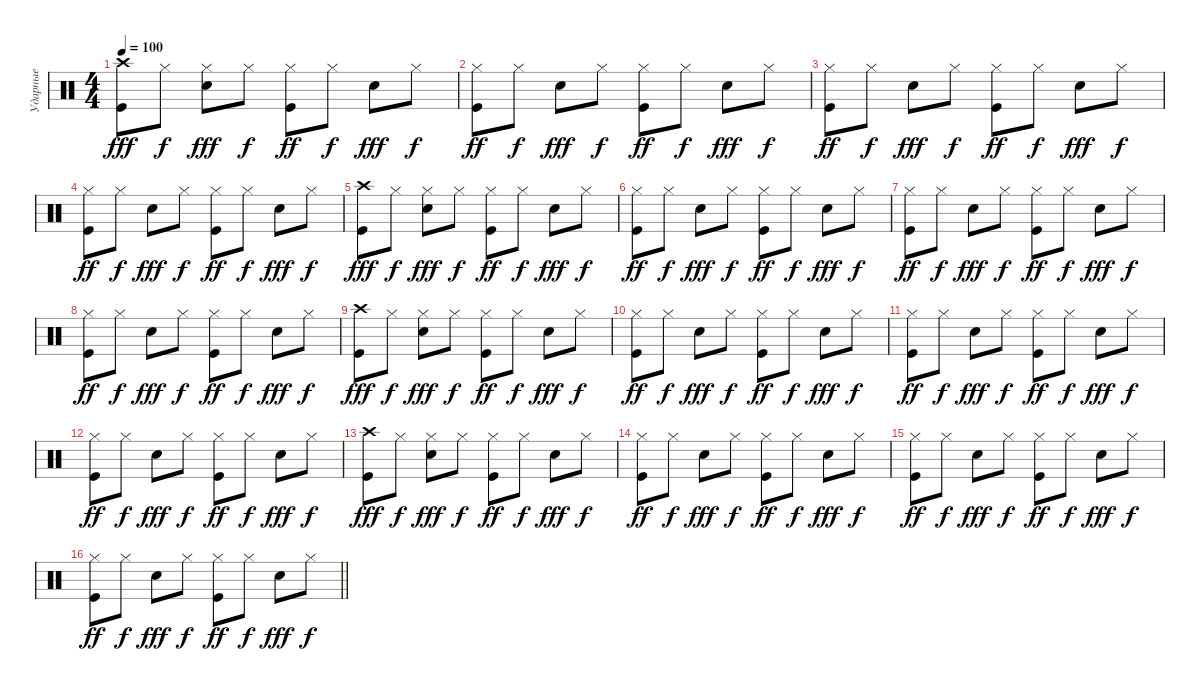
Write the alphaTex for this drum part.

\track ("Ударные" "Ударные") {instrument percussion}
\staff {score}
\articulation defaults
\ts (4 4)
\tempo 100
\clef neutral
\ks c
("Kick (hit)" "Crash high (hit)").8{dy fff} "Hi-Hat (closed)".8{dy f} ("Electric Snare (hit)" "Hi-Hat (closed)").8{dy fff} "Hi-Hat (closed)".8{dy f} ("Kick (hit)" "Hi-Hat (closed)").8{dy ff} "Hi-Hat (closed)".8{dy f} "Electric Snare (hit)".8{dy fff} "Hi-Hat (closed)".8{dy f} |
("Kick (hit)" "Hi-Hat (closed)").8{dy ff} "Hi-Hat (closed)".8{dy f} "Electric Snare (hit)".8{dy fff} "Hi-Hat (closed)".8{dy f} ("Kick (hit)" "Hi-Hat (closed)").8{dy ff} "Hi-Hat (closed)".8{dy f} "Electric Snare (hit)".8{dy fff} "Hi-Hat (closed)".8{dy f} |
("Kick (hit)" "Hi-Hat (closed)").8{dy ff} "Hi-Hat (closed)".8{dy f} "Electric Snare (hit)".8{dy fff} "Hi-Hat (closed)".8{dy f} ("Kick (hit)" "Hi-Hat (closed)").8{dy ff} "Hi-Hat (closed)".8{dy f} "Electric Snare (hit)".8{dy fff} "Hi-Hat (closed)".8{dy f} |
("Kick (hit)" "Hi-Hat (closed)").8{dy ff} "Hi-Hat (closed)".8{dy f} "Electric Snare (hit)".8{dy fff} "Hi-Hat (closed)".8{dy f} ("Kick (hit)" "Hi-Hat (closed)").8{dy ff} "Hi-Hat (closed)".8{dy f} "Electric Snare (hit)".8{dy fff} "Hi-Hat (closed)".8{dy f} |
("Kick (hit)" "Crash high (hit)").8{dy fff} "Hi-Hat (closed)".8{dy f} ("Electric Snare (hit)" "Hi-Hat (closed)").8{dy fff} "Hi-Hat (closed)".8{dy f} ("Kick (hit)" "Hi-Hat (closed)").8{dy ff} "Hi-Hat (closed)".8{dy f} "Electric Snare (hit)".8{dy fff} "Hi-Hat (closed)".8{dy f} |
("Kick (hit)" "Hi-Hat (closed)").8{dy ff} "Hi-Hat (closed)".8{dy f} "Electric Snare (hit)".8{dy fff} "Hi-Hat (closed)".8{dy f} ("Kick (hit)" "Hi-Hat (closed)").8{dy ff} "Hi-Hat (closed)".8{dy f} "Electric Snare (hit)".8{dy fff} "Hi-Hat (closed)".8{dy f} |
("Kick (hit)" "Hi-Hat (closed)").8{dy ff} "Hi-Hat (closed)".8{dy f} "Electric Snare (hit)".8{dy fff} "Hi-Hat (closed)".8{dy f} ("Kick (hit)" "Hi-Hat (closed)").8{dy ff} "Hi-Hat (closed)".8{dy f} "Electric Snare (hit)".8{dy fff} "Hi-Hat (closed)".8{dy f} |
("Kick (hit)" "Hi-Hat (closed)").8{dy ff} "Hi-Hat (closed)".8{dy f} "Electric Snare (hit)".8{dy fff} "Hi-Hat (closed)".8{dy f} ("Kick (hit)" "Hi-Hat (closed)").8{dy ff} "Hi-Hat (closed)".8{dy f} "Electric Snare (hit)".8{dy fff} "Hi-Hat (closed)".8{dy f} |
("Kick (hit)" "Crash high (hit)").8{dy fff} "Hi-Hat (closed)".8{dy f} ("Electric Snare (hit)" "Hi-Hat (closed)").8{dy fff} "Hi-Hat (closed)".8{dy f} ("Kick (hit)" "Hi-Hat (closed)").8{dy ff} "Hi-Hat (closed)".8{dy f} "Electric Snare (hit)".8{dy fff} "Hi-Hat (closed)".8{dy f} |
("Kick (hit)" "Hi-Hat (closed)").8{dy ff} "Hi-Hat (closed)".8{dy f} "Electric Snare (hit)".8{dy fff} "Hi-Hat (closed)".8{dy f} ("Kick (hit)" "Hi-Hat (closed)").8{dy ff} "Hi-Hat (closed)".8{dy f} "Electric Snare (hit)".8{dy fff} "Hi-Hat (closed)".8{dy f} |
("Kick (hit)" "Hi-Hat (closed)").8{dy ff} "Hi-Hat (closed)".8{dy f} "Electric Snare (hit)".8{dy fff} "Hi-Hat (closed)".8{dy f} ("Kick (hit)" "Hi-Hat (closed)").8{dy ff} "Hi-Hat (closed)".8{dy f} "Electric Snare (hit)".8{dy fff} "Hi-Hat (closed)".8{dy f} |
("Kick (hit)" "Hi-Hat (closed)").8{dy ff} "Hi-Hat (closed)".8{dy f} "Electric Snare (hit)".8{dy fff} "Hi-Hat (closed)".8{dy f} ("Kick (hit)" "Hi-Hat (closed)").8{dy ff} "Hi-Hat (closed)".8{dy f} "Electric Snare (hit)".8{dy fff} "Hi-Hat (closed)".8{dy f} |
("Kick (hit)" "Crash high (hit)").8{dy fff} "Hi-Hat (closed)".8{dy f} ("Electric Snare (hit)" "Hi-Hat (closed)").8{dy fff} "Hi-Hat (closed)".8{dy f} ("Kick (hit)" "Hi-Hat (closed)").8{dy ff} "Hi-Hat (closed)".8{dy f} "Electric Snare (hit)".8{dy fff} "Hi-Hat (closed)".8{dy f} |
("Kick (hit)" "Hi-Hat (closed)").8{dy ff} "Hi-Hat (closed)".8{dy f} "Electric Snare (hit)".8{dy fff} "Hi-Hat (closed)".8{dy f} ("Kick (hit)" "Hi-Hat (closed)").8{dy ff} "Hi-Hat (closed)".8{dy f} "Electric Snare (hit)".8{dy fff} "Hi-Hat (closed)".8{dy f} |
("Kick (hit)" "Hi-Hat (closed)").8{dy ff} "Hi-Hat (closed)".8{dy f} "Electric Snare (hit)".8{dy fff} "Hi-Hat (closed)".8{dy f} ("Kick (hit)" "Hi-Hat (closed)").8{dy ff} "Hi-Hat (closed)".8{dy f} "Electric Snare (hit)".8{dy fff} "Hi-Hat (closed)".8{dy f} |
\barLineRight lightlight
("Kick (hit)" "Hi-Hat (closed)").8{dy ff} "Hi-Hat (closed)".8{dy f} "Electric Snare (hit)".8{dy fff} "Hi-Hat (closed)".8{dy f} ("Kick (hit)" "Hi-Hat (closed)").8{dy ff} "Hi-Hat (closed)".8{dy f} "Electric Snare (hit)".8{dy fff} "Hi-Hat (closed)".8{dy f}
